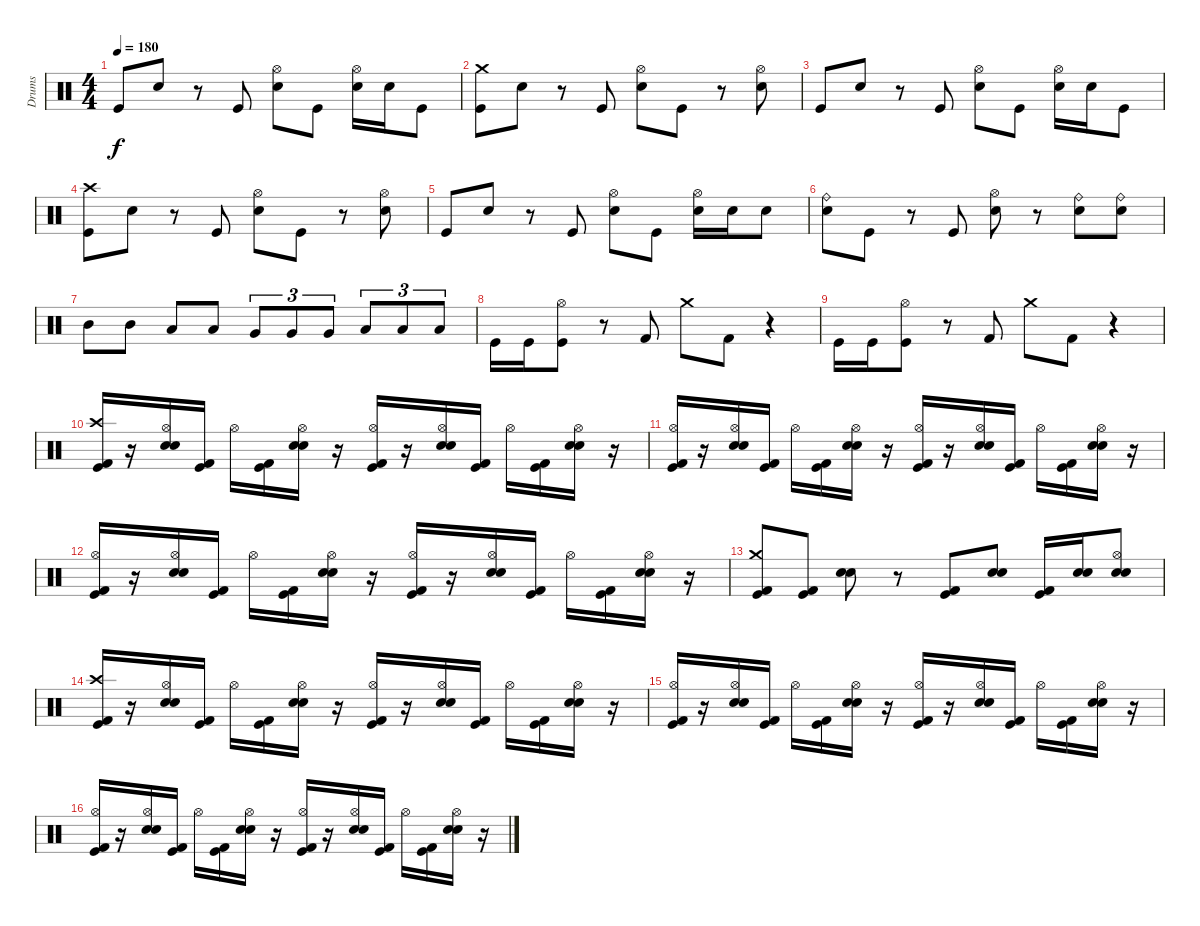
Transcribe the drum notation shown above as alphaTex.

\track ("Drums" "Drums") {instrument percussion}
\staff {score}
\articulation defaults
\ts (4 4)
\tempo 180
\clef neutral
\ks c "Kick (hit)".8{dy f} "Electric Snare (hit)".8
r.8 "Kick (hit)".8 ("Hi-Hat (open)" "Electric Snare (hit)").8 "Kick (hit)".8 ("Hi-Hat (open)" "Electric Snare (hit)").16 "Electric Snare (hit)".16 "Kick (hit)".8 |
("Crash medium (hit)" "Kick (hit)").8 "Electric Snare (hit)".8 r.8 "Kick (hit)".8 ("Hi-Hat (open)" "Electric Snare (hit)").8 "Kick (hit)".8 r.8 ("Hi-Hat (open)" "Electric Snare (hit)").8 |
"Kick (hit)".8 "Electric Snare (hit)".8 r.8 "Kick (hit)".8 ("Hi-Hat (open)" "Electric Snare (hit)").8 "Kick (hit)".8 ("Hi-Hat (open)" "Electric Snare (hit)").16 "Electric Snare (hit)".16 "Kick (hit)".8 |
("Crash high (hit)" "Kick (hit)").8 "Electric Snare (hit)".8 r.8 "Kick (hit)".8 ("Hi-Hat (open)" "Electric Snare (hit)").8 "Kick (hit)".8 r.8 ("Hi-Hat (open)" "Electric Snare (hit)").8 |
"Kick (hit)".8 "Electric Snare (hit)".8 r.8 "Kick (hit)".8 ("Hi-Hat (open)" "Electric Snare (hit)").8 "Kick (hit)".8 ("Hi-Hat (open)" "Electric Snare (hit)").16 "Electric Snare (hit)".16 "Electric Snare (hit)".8 |
("Ride (bell)" "Snare (hit) 2").8 "Kick (hit)".8 r.8 "Kick (hit)".8 ("Hi-Hat (open)" "Electric Snare (hit)").8 r.8 ("Ride (bell)" "Snare (hit) 2").8 ("Ride (bell)" "Snare (hit) 2").8 |
"Mid Tom (hit)".8 "Mid Tom (hit)".8 "Low Tom (hit)".8 "Low Tom (hit)".8 "Very Low Tom (hit)".8{tu (3 2)} "Very Low Tom (hit)".8{tu (3 2)} "Very Low Tom (hit)".8{tu (3 2)} "Low Floor Tom (hit)".8{tu (3 2)} "Low Floor Tom (hit)".8{tu (3 2)} "Low Floor Tom (hit)".8{tu (3 2)} |
"Kick (hit)".16 "Kick (hit)".16 ("Hi-Hat (open)" "Kick (hit)").8 r.8 "Kick (hit) 2".8 "Crash medium (hit)".8 "Kick (hit) 2".8 r.4 |
"Kick (hit)".16 "Kick (hit)".16 ("Hi-Hat (open)" "Kick (hit)").8 r.8 "Kick (hit) 2".8 "Crash medium (hit)".8 "Kick (hit) 2".8 r.4 |
("Crash high (hit)" "Kick (hit) 2" "Kick (hit)").16 r.16 ("Hi-Hat (open)" "Snare (hit) 2" "Electric Snare (hit)").16 ("Kick (hit) 2" "Kick (hit)").16 "Hi-Hat (open)".16 ("Kick (hit) 2" "Kick (hit)").16 ("Hi-Hat (open)" "Snare (hit) 2" "Electric Snare (hit)").16 r.16 ("Hi-Hat (open)" "Kick (hit) 2" "Kick (hit)").16 r.16 ("Hi-Hat (open)" "Snare (hit) 2" "Electric Snare (hit)").16 ("Kick (hit) 2" "Kick (hit)").16 "Hi-Hat (open)".16 ("Kick (hit) 2" "Kick (hit)").16 ("Hi-Hat (open)" "Snare (hit) 2" "Electric Snare (hit)").16 r.16 |
("Hi-Hat (open)" "Kick (hit) 2" "Kick (hit)").16 r.16 ("Hi-Hat (open)" "Snare (hit) 2" "Electric Snare (hit)").16 ("Kick (hit) 2" "Kick (hit)").16 "Hi-Hat (open)".16 ("Kick (hit) 2" "Kick (hit)").16 ("Hi-Hat (open)" "Snare (hit) 2" "Electric Snare (hit)").16 r.16 ("Hi-Hat (open)" "Kick (hit) 2" "Kick (hit)").16 r.16 ("Hi-Hat (open)" "Snare (hit) 2" "Electric Snare (hit)").16 ("Kick (hit) 2" "Kick (hit)").16 "Hi-Hat (open)".16 ("Kick (hit) 2" "Kick (hit)").16 ("Hi-Hat (open)" "Snare (hit) 2" "Electric Snare (hit)").16 r.16 |
("Hi-Hat (open)" "Kick (hit) 2" "Kick (hit)").16 r.16 ("Hi-Hat (open)" "Snare (hit) 2" "Electric Snare (hit)").16 ("Kick (hit) 2" "Kick (hit)").16 "Hi-Hat (open)".16 ("Kick (hit) 2" "Kick (hit)").16 ("Hi-Hat (open)" "Snare (hit) 2" "Electric Snare (hit)").16 r.16 ("Hi-Hat (open)" "Kick (hit) 2" "Kick (hit)").16 r.16 ("Hi-Hat (open)" "Snare (hit) 2" "Electric Snare (hit)").16 ("Kick (hit) 2" "Kick (hit)").16 "Hi-Hat (open)".16 ("Kick (hit) 2" "Kick (hit)").16 ("Hi-Hat (open)" "Snare (hit) 2" "Electric Snare (hit)").16 r.16 |
("Crash medium (hit)" "Kick (hit) 2" "Kick (hit)").8 ("Kick (hit) 2" "Kick (hit)").8 ("Electric Snare (hit)" "Electric Snare (hit)").8 r.8 ("Kick (hit) 2" "Kick (hit)").8 ("Electric Snare (hit)" "Electric Snare (hit)").8 ("Kick (hit) 2" "Kick (hit)").16 ("Electric Snare (hit)" "Electric Snare (hit)").16 ("Hi-Hat (open)" "Snare (hit) 2" "Electric Snare (hit)").8 |
("Crash high (hit)" "Kick (hit) 2" "Kick (hit)").16 r.16 ("Hi-Hat (open)" "Snare (hit) 2" "Electric Snare (hit)").16 ("Kick (hit) 2" "Kick (hit)").16 "Hi-Hat (open)".16 ("Kick (hit) 2" "Kick (hit)").16 ("Hi-Hat (open)" "Snare (hit) 2" "Electric Snare (hit)").16 r.16 ("Hi-Hat (open)" "Kick (hit) 2" "Kick (hit)").16 r.16 ("Hi-Hat (open)" "Snare (hit) 2" "Electric Snare (hit)").16 ("Kick (hit) 2" "Kick (hit)").16 "Hi-Hat (open)".16 ("Kick (hit) 2" "Kick (hit)").16 ("Hi-Hat (open)" "Snare (hit) 2" "Electric Snare (hit)").16 r.16 |
("Hi-Hat (open)" "Kick (hit) 2" "Kick (hit)").16 r.16 ("Hi-Hat (open)" "Snare (hit) 2" "Electric Snare (hit)").16 ("Kick (hit) 2" "Kick (hit)").16 "Hi-Hat (open)".16 ("Kick (hit) 2" "Kick (hit)").16 ("Hi-Hat (open)" "Snare (hit) 2" "Electric Snare (hit)").16 r.16 ("Hi-Hat (open)" "Kick (hit) 2" "Kick (hit)").16 r.16 ("Hi-Hat (open)" "Snare (hit) 2" "Electric Snare (hit)").16 ("Kick (hit) 2" "Kick (hit)").16 "Hi-Hat (open)".16 ("Kick (hit) 2" "Kick (hit)").16 ("Hi-Hat (open)" "Snare (hit) 2" "Electric Snare (hit)").16 r.16 |
("Hi-Hat (open)" "Kick (hit) 2" "Kick (hit)").16 r.16 ("Hi-Hat (open)" "Snare (hit) 2" "Electric Snare (hit)").16 ("Kick (hit) 2" "Kick (hit)").16 "Hi-Hat (open)".16 ("Kick (hit) 2" "Kick (hit)").16 ("Hi-Hat (open)" "Snare (hit) 2" "Electric Snare (hit)").16 r.16 ("Hi-Hat (open)" "Kick (hit) 2" "Kick (hit)").16 r.16 ("Hi-Hat (open)" "Snare (hit) 2" "Electric Snare (hit)").16 ("Kick (hit) 2" "Kick (hit)").16 "Hi-Hat (open)".16 ("Kick (hit) 2" "Kick (hit)").16 ("Hi-Hat (open)" "Snare (hit) 2" "Electric Snare (hit)").16 r.16
